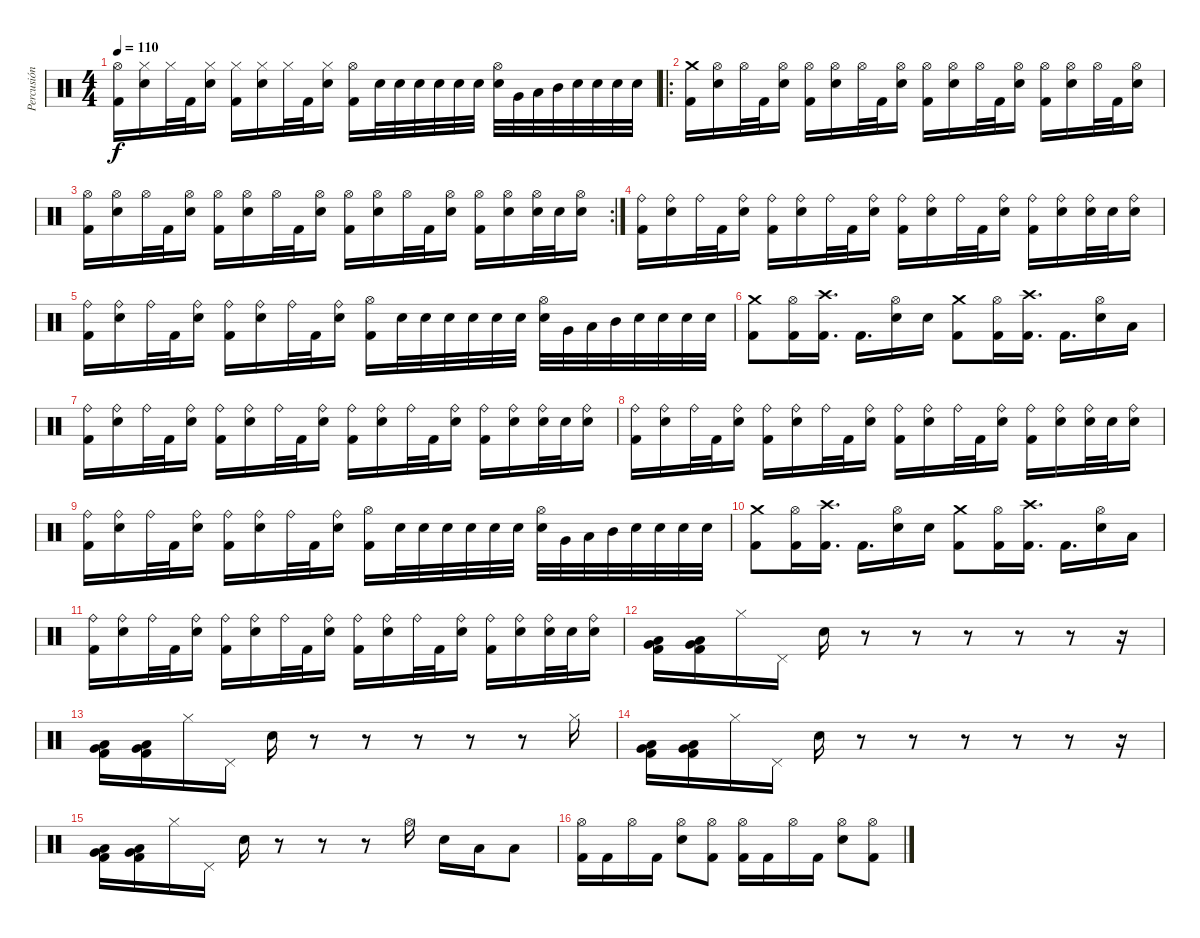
\track ("Percusión" "Percusión") {instrument percussion}
\staff {score}
\articulation defaults
\ts (4 4)
\tempo 110
\clef neutral
\ks c
("Hi-Hat (open)" "Kick (hit) 2").16{dy f} ("Hi-Hat (closed)" "Electric Snare (hit)").16 "Hi-Hat (closed)".32 "Kick (hit) 2".32 ("Hi-Hat (closed)" "Electric Snare (hit)").16 ("Hi-Hat (closed)" "Kick (hit) 2").16 ("Hi-Hat (closed)" "Electric Snare (hit)").16 "Hi-Hat (closed)".32 "Kick (hit) 2".32 ("Hi-Hat (closed)" "Electric Snare (hit)").16 ("Hi-Hat (open)" "Kick (hit) 2").16 "Electric Snare (hit)".32 "Electric Snare (hit)".32 "Electric Snare (hit)".32 "Electric Snare (hit)".32 "Electric Snare (hit)".32 "Electric Snare (hit)".32 ("Hi-Hat (open)" "Electric Snare (hit)").32 "Very Low Tom (hit)".32 "Low Tom (hit)".32 "Mid Tom (hit)".32 "Electric Snare (hit)".32 "Electric Snare (hit)".32 "Electric Snare (hit)".32 "Electric Snare (hit)".32 |
\ro
("Crash medium (hit)" "Kick (hit) 2").16 ("Hi-Hat (open)" "Electric Snare (hit)").16 "Hi-Hat (open)".32 "Kick (hit) 2".32 ("Hi-Hat (open)" "Electric Snare (hit)").16 ("Hi-Hat (open)" "Kick (hit) 2").16 ("Hi-Hat (open)" "Electric Snare (hit)").16 "Hi-Hat (open)".32 "Kick (hit) 2".32 ("Hi-Hat (open)" "Electric Snare (hit)").16 ("Hi-Hat (open)" "Kick (hit) 2").16 ("Hi-Hat (open)" "Electric Snare (hit)").16 "Hi-Hat (open)".32 "Kick (hit) 2".32 ("Hi-Hat (open)" "Electric Snare (hit)").16 ("Hi-Hat (open)" "Kick (hit) 2").16 ("Hi-Hat (open)" "Electric Snare (hit)").16 "Hi-Hat (open)".32 "Kick (hit) 2".32 ("Hi-Hat (open)" "Electric Snare (hit)").16 |
\rc 2
("Hi-Hat (open)" "Kick (hit) 2").16 ("Hi-Hat (open)" "Electric Snare (hit)").16 "Hi-Hat (open)".32 "Kick (hit) 2".32 ("Hi-Hat (open)" "Electric Snare (hit)").16 ("Hi-Hat (open)" "Kick (hit) 2").16 ("Hi-Hat (open)" "Electric Snare (hit)").16 "Hi-Hat (open)".32 "Kick (hit) 2".32 ("Hi-Hat (open)" "Electric Snare (hit)").16 ("Hi-Hat (open)" "Kick (hit) 2").16 ("Hi-Hat (open)" "Electric Snare (hit)").16 "Hi-Hat (open)".32 "Kick (hit) 2".32 ("Hi-Hat (open)" "Electric Snare (hit)").16 ("Hi-Hat (open)" "Kick (hit) 2").16 ("Hi-Hat (open)" "Electric Snare (hit)").16 ("Hi-Hat (open)" "Electric Snare (hit)").32 "Electric Snare (hit)".32 ("Hi-Hat (open)" "Electric Snare (hit)").16 |
("Ride (bell)" "Kick (hit) 2").16 ("Ride (bell)" "Electric Snare (hit)").16 "Ride (bell)".32 "Kick (hit) 2".32 ("Ride (bell)" "Electric Snare (hit)").16 ("Ride (bell)" "Kick (hit) 2").16 ("Ride (bell)" "Electric Snare (hit)").16 "Ride (bell)".32 "Kick (hit) 2".32 ("Ride (bell)" "Electric Snare (hit)").16 ("Ride (bell)" "Kick (hit) 2").16 ("Ride (bell)" "Electric Snare (hit)").16 "Ride (bell)".32 "Kick (hit) 2".32 ("Ride (bell)" "Electric Snare (hit)").16 ("Ride (bell)" "Kick (hit) 2").16 ("Ride (bell)" "Electric Snare (hit)").16 ("Ride (bell)" "Electric Snare (hit)").32 "Electric Snare (hit)".32 ("Ride (bell)" "Electric Snare (hit)").16 |
("Ride (bell)" "Kick (hit) 2").16 ("Ride (bell)" "Electric Snare (hit)").16 "Ride (bell)".32 "Kick (hit) 2".32 ("Ride (bell)" "Electric Snare (hit)").16 ("Ride (bell)" "Kick (hit) 2").16 ("Ride (bell)" "Electric Snare (hit)").16 "Ride (bell)".32 "Kick (hit) 2".32 ("Ride (bell)" "Electric Snare (hit)").16 ("Hi-Hat (open)" "Kick (hit) 2").16 "Electric Snare (hit)".32 "Electric Snare (hit)".32 "Electric Snare (hit)".32 "Electric Snare (hit)".32 "Electric Snare (hit)".32 "Electric Snare (hit)".32 ("Hi-Hat (open)" "Electric Snare (hit)").32 "Very Low Tom (hit)".32 "Low Tom (hit)".32 "Mid Tom (hit)".32 "Electric Snare (hit)".32 "Electric Snare (hit)".32 "Electric Snare (hit)".32 "Electric Snare (hit)".32 |
("Crash medium (hit)" "Kick (hit) 2").8 ("Hi-Hat (open)" "Kick (hit) 2").16 ("Crash high (hit)" "Kick (hit) 2").16{d} "Kick (hit) 2".16{d} ("Hi-Hat (open)" "Electric Snare (hit)").16 "Electric Snare (hit)".16 ("Crash medium (hit)" "Kick (hit) 2").8 ("Hi-Hat (open)" "Kick (hit) 2").16 ("Crash high (hit)" "Kick (hit) 2").16{d} "Kick (hit) 2".16{d} ("Hi-Hat (open)" "Electric Snare (hit)").16 "Low Tom (hit)".16 |
("Ride (bell)" "Kick (hit) 2").16 ("Ride (bell)" "Electric Snare (hit)").16 "Ride (bell)".32 "Kick (hit) 2".32 ("Ride (bell)" "Electric Snare (hit)").16 ("Ride (bell)" "Kick (hit) 2").16 ("Ride (bell)" "Electric Snare (hit)").16 "Ride (bell)".32 "Kick (hit) 2".32 ("Ride (bell)" "Electric Snare (hit)").16 ("Ride (bell)" "Kick (hit) 2").16 ("Ride (bell)" "Electric Snare (hit)").16 "Ride (bell)".32 "Kick (hit) 2".32 ("Ride (bell)" "Electric Snare (hit)").16 ("Ride (bell)" "Kick (hit) 2").16 ("Ride (bell)" "Electric Snare (hit)").16 ("Ride (bell)" "Electric Snare (hit)").32 "Electric Snare (hit)".32 ("Ride (bell)" "Electric Snare (hit)").16 |
("Ride (bell)" "Kick (hit) 2").16 ("Ride (bell)" "Electric Snare (hit)").16 "Ride (bell)".32 "Kick (hit) 2".32 ("Ride (bell)" "Electric Snare (hit)").16 ("Ride (bell)" "Kick (hit) 2").16 ("Ride (bell)" "Electric Snare (hit)").16 "Ride (bell)".32 "Kick (hit) 2".32 ("Ride (bell)" "Electric Snare (hit)").16 ("Ride (bell)" "Kick (hit) 2").16 ("Ride (bell)" "Electric Snare (hit)").16 "Ride (bell)".32 "Kick (hit) 2".32 ("Ride (bell)" "Electric Snare (hit)").16 ("Ride (bell)" "Kick (hit) 2").16 ("Ride (bell)" "Electric Snare (hit)").16 ("Ride (bell)" "Electric Snare (hit)").32 "Electric Snare (hit)".32 ("Ride (bell)" "Electric Snare (hit)").16 |
("Ride (bell)" "Kick (hit) 2").16 ("Ride (bell)" "Electric Snare (hit)").16 "Ride (bell)".32 "Kick (hit) 2".32 ("Ride (bell)" "Electric Snare (hit)").16 ("Ride (bell)" "Kick (hit) 2").16 ("Ride (bell)" "Electric Snare (hit)").16 "Ride (bell)".32 "Kick (hit) 2".32 ("Ride (bell)" "Electric Snare (hit)").16 ("Hi-Hat (open)" "Kick (hit) 2").16 "Electric Snare (hit)".32 "Electric Snare (hit)".32 "Electric Snare (hit)".32 "Electric Snare (hit)".32 "Electric Snare (hit)".32 "Electric Snare (hit)".32 ("Hi-Hat (open)" "Electric Snare (hit)").32 "Very Low Tom (hit)".32 "Low Tom (hit)".32 "Mid Tom (hit)".32 "Electric Snare (hit)".32 "Electric Snare (hit)".32 "Electric Snare (hit)".32 "Electric Snare (hit)".32 |
("Crash medium (hit)" "Kick (hit) 2").8 ("Hi-Hat (open)" "Kick (hit) 2").16 ("Crash high (hit)" "Kick (hit) 2").16{d} "Kick (hit) 2".16{d} ("Hi-Hat (open)" "Electric Snare (hit)").16 "Electric Snare (hit)".16 ("Crash medium (hit)" "Kick (hit) 2").8 ("Hi-Hat (open)" "Kick (hit) 2").16 ("Crash high (hit)" "Kick (hit) 2").16{d} "Kick (hit) 2".16{d} ("Hi-Hat (open)" "Electric Snare (hit)").16 "Low Tom (hit)".16 |
("Ride (bell)" "Kick (hit) 2").16 ("Ride (bell)" "Electric Snare (hit)").16 "Ride (bell)".32 "Kick (hit) 2".32 ("Ride (bell)" "Electric Snare (hit)").16 ("Ride (bell)" "Kick (hit) 2").16 ("Ride (bell)" "Electric Snare (hit)").16 "Ride (bell)".32 "Kick (hit) 2".32 ("Ride (bell)" "Electric Snare (hit)").16 ("Ride (bell)" "Kick (hit) 2").16 ("Ride (bell)" "Electric Snare (hit)").16 "Ride (bell)".32 "Kick (hit) 2".32 ("Ride (bell)" "Electric Snare (hit)").16 ("Ride (bell)" "Kick (hit) 2").16 ("Ride (bell)" "Electric Snare (hit)").16 ("Ride (bell)" "Electric Snare (hit)").32 "Electric Snare (hit)".32 ("Ride (bell)" "Electric Snare (hit)").16 |
("Low Tom (hit)" "Kick (hit) 2" "Very Low Tom (hit)").16 ("Low Tom (hit)" "Kick (hit) 2" "Very Low Tom (hit)").16 "Hi-Hat (closed)".16 "Pedal Hi-Hat (hit)".16 "Electric Snare (hit)".16 r.8 r.8 r.8 r.8 r.8 r.16 |
("Low Tom (hit)" "Kick (hit) 2" "Very Low Tom (hit)").16 ("Low Tom (hit)" "Kick (hit) 2" "Very Low Tom (hit)").16 "Hi-Hat (closed)".16 "Pedal Hi-Hat (hit)".16 "Electric Snare (hit)".16 r.8 r.8 r.8 r.8 r.8 "Hi-Hat (closed)".16 |
("Low Tom (hit)" "Kick (hit) 2" "Very Low Tom (hit)").16 ("Low Tom (hit)" "Kick (hit) 2" "Very Low Tom (hit)").16 "Hi-Hat (closed)".16 "Pedal Hi-Hat (hit)".16 "Electric Snare (hit)".16 r.8 r.8 r.8 r.8 r.8 r.16 |
("Low Tom (hit)" "Kick (hit) 2" "Very Low Tom (hit)").16 ("Low Tom (hit)" "Kick (hit) 2" "Very Low Tom (hit)").16 "Hi-Hat (closed)".16 "Pedal Hi-Hat (hit)".16 "Electric Snare (hit)".16 r.8 r.8 r.8 "Hi-Hat (open)".16 "Electric Snare (hit)".16 "Low Tom (hit)".16 "Low Tom (hit)".8 |
("Hi-Hat (open)" "Kick (hit) 2").16 "Kick (hit) 2".16 "Hi-Hat (open)".16 "Kick (hit) 2".16 ("Hi-Hat (open)" "Electric Snare (hit)").8 ("Hi-Hat (open)" "Kick (hit) 2").8 ("Hi-Hat (open)" "Kick (hit) 2").16 "Kick (hit) 2".16 "Hi-Hat (open)".16 "Kick (hit) 2".16 ("Hi-Hat (open)" "Electric Snare (hit)").8 ("Hi-Hat (open)" "Kick (hit) 2").8
